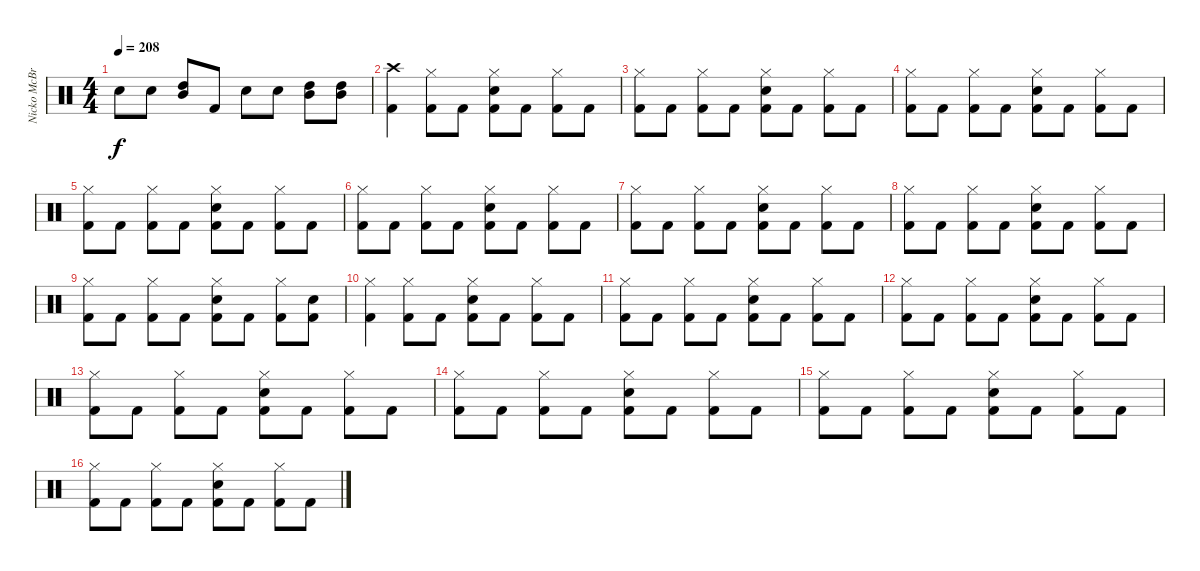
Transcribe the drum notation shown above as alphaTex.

\track ("Nicko McBrain" "Nicko McBr") {instrument percussion}
\staff {score}
\articulation defaults
\ts (4 4)
\tempo 208
\clef neutral
\ks c "Electric Snare (hit)".8{dy f} "Electric Snare (hit)".8
("High Tom (hit)" "Mid Tom (hit)").8 "Kick (hit) 2".8 "Electric Snare (hit)".8 "Electric Snare (hit)".8 ("High Tom (hit)" "Mid Tom (hit)").8 ("High Tom (hit)" "Mid Tom (hit)").8 |
("Crash high (hit)" "Kick (hit) 2").4 ("Hi-Hat (closed)" "Kick (hit) 2").8 "Kick (hit) 2".8 ("Hi-Hat (closed)" "Electric Snare (hit)" "Kick (hit) 2").8 "Kick (hit) 2".8 ("Hi-Hat (closed)" "Kick (hit) 2").8 "Kick (hit) 2".8 |
("Hi-Hat (closed)" "Kick (hit) 2").8 "Kick (hit) 2".8 ("Hi-Hat (closed)" "Kick (hit) 2").8 "Kick (hit) 2".8 ("Hi-Hat (closed)" "Electric Snare (hit)" "Kick (hit) 2").8 "Kick (hit) 2".8 ("Hi-Hat (closed)" "Kick (hit) 2").8 "Kick (hit) 2".8 |
("Hi-Hat (closed)" "Kick (hit) 2").8 "Kick (hit) 2".8 ("Hi-Hat (closed)" "Kick (hit) 2").8 "Kick (hit) 2".8 ("Hi-Hat (closed)" "Electric Snare (hit)" "Kick (hit) 2").8 "Kick (hit) 2".8 ("Hi-Hat (closed)" "Kick (hit) 2").8 "Kick (hit) 2".8 |
("Hi-Hat (closed)" "Kick (hit) 2").8 "Kick (hit) 2".8 ("Hi-Hat (closed)" "Kick (hit) 2").8 "Kick (hit) 2".8 ("Hi-Hat (closed)" "Electric Snare (hit)" "Kick (hit) 2").8 "Kick (hit) 2".8 ("Hi-Hat (closed)" "Kick (hit) 2").8 "Kick (hit) 2".8 |
("Hi-Hat (closed)" "Kick (hit) 2").8 "Kick (hit) 2".8 ("Hi-Hat (closed)" "Kick (hit) 2").8 "Kick (hit) 2".8 ("Hi-Hat (closed)" "Electric Snare (hit)" "Kick (hit) 2").8 "Kick (hit) 2".8 ("Hi-Hat (closed)" "Kick (hit) 2").8 "Kick (hit) 2".8 |
("Hi-Hat (closed)" "Kick (hit) 2").8 "Kick (hit) 2".8 ("Hi-Hat (closed)" "Kick (hit) 2").8 "Kick (hit) 2".8 ("Hi-Hat (closed)" "Electric Snare (hit)" "Kick (hit) 2").8 "Kick (hit) 2".8 ("Hi-Hat (closed)" "Kick (hit) 2").8 "Kick (hit) 2".8 |
("Hi-Hat (closed)" "Kick (hit) 2").8 "Kick (hit) 2".8 ("Hi-Hat (closed)" "Kick (hit) 2").8 "Kick (hit) 2".8 ("Hi-Hat (closed)" "Electric Snare (hit)" "Kick (hit) 2").8 "Kick (hit) 2".8 ("Hi-Hat (closed)" "Kick (hit) 2").8 "Kick (hit) 2".8 |
("Hi-Hat (closed)" "Kick (hit) 2").8 "Kick (hit) 2".8 ("Hi-Hat (closed)" "Kick (hit) 2").8 "Kick (hit) 2".8 ("Hi-Hat (closed)" "Electric Snare (hit)" "Kick (hit) 2").8 "Kick (hit) 2".8 ("Hi-Hat (closed)" "Kick (hit) 2").8 ("Electric Snare (hit)" "Kick (hit) 2").8 |
("Hi-Hat (closed)" "Kick (hit) 2").4 ("Hi-Hat (closed)" "Kick (hit) 2").8 "Kick (hit) 2".8 ("Hi-Hat (closed)" "Electric Snare (hit)" "Kick (hit) 2").8 "Kick (hit) 2".8 ("Hi-Hat (closed)" "Kick (hit) 2").8 "Kick (hit) 2".8 |
("Hi-Hat (closed)" "Kick (hit) 2").8 "Kick (hit) 2".8 ("Hi-Hat (closed)" "Kick (hit) 2").8 "Kick (hit) 2".8 ("Hi-Hat (closed)" "Electric Snare (hit)" "Kick (hit) 2").8 "Kick (hit) 2".8 ("Hi-Hat (closed)" "Kick (hit) 2").8 "Kick (hit) 2".8 |
("Hi-Hat (closed)" "Kick (hit) 2").8 "Kick (hit) 2".8 ("Hi-Hat (closed)" "Kick (hit) 2").8 "Kick (hit) 2".8 ("Hi-Hat (closed)" "Electric Snare (hit)" "Kick (hit) 2").8 "Kick (hit) 2".8 ("Hi-Hat (closed)" "Kick (hit) 2").8 "Kick (hit) 2".8 |
("Hi-Hat (closed)" "Kick (hit) 2").8 "Kick (hit) 2".8 ("Hi-Hat (closed)" "Kick (hit) 2").8 "Kick (hit) 2".8 ("Hi-Hat (closed)" "Electric Snare (hit)" "Kick (hit) 2").8 "Kick (hit) 2".8 ("Hi-Hat (closed)" "Kick (hit) 2").8 "Kick (hit) 2".8 |
("Hi-Hat (closed)" "Kick (hit) 2").8 "Kick (hit) 2".8 ("Hi-Hat (closed)" "Kick (hit) 2").8 "Kick (hit) 2".8 ("Hi-Hat (closed)" "Electric Snare (hit)" "Kick (hit) 2").8 "Kick (hit) 2".8 ("Hi-Hat (closed)" "Kick (hit) 2").8 "Kick (hit) 2".8 |
("Hi-Hat (closed)" "Kick (hit) 2").8 "Kick (hit) 2".8 ("Hi-Hat (closed)" "Kick (hit) 2").8 "Kick (hit) 2".8 ("Hi-Hat (closed)" "Electric Snare (hit)" "Kick (hit) 2").8 "Kick (hit) 2".8 ("Hi-Hat (closed)" "Kick (hit) 2").8 "Kick (hit) 2".8 |
("Hi-Hat (closed)" "Kick (hit) 2").8 "Kick (hit) 2".8 ("Hi-Hat (closed)" "Kick (hit) 2").8 "Kick (hit) 2".8 ("Hi-Hat (closed)" "Electric Snare (hit)" "Kick (hit) 2").8 "Kick (hit) 2".8 ("Hi-Hat (closed)" "Kick (hit) 2").8 "Kick (hit) 2".8
